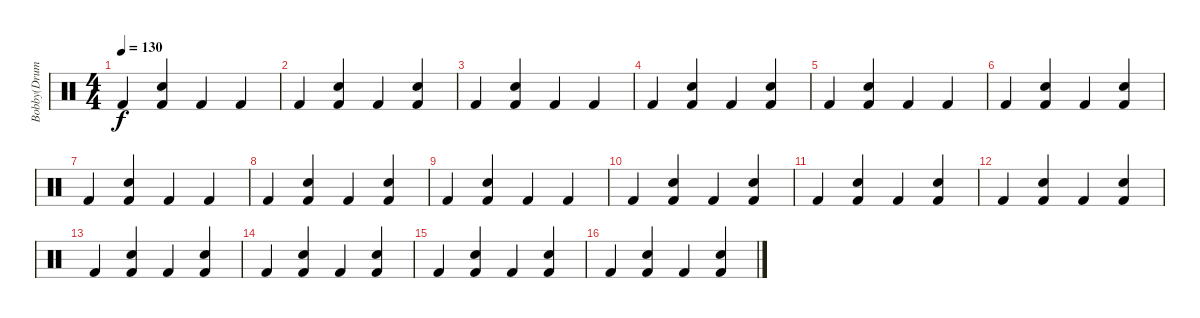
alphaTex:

\track ("Bobby(DrumSynth)" "Bobby(Drum") {instrument percussion}
\staff {score}
\articulation defaults
\ts (4 4)
\tempo 130
\clef neutral
\ks c "Kick (hit) 2".4{dy f}
("Kick (hit) 2" "Electric Snare (hit)").4 "Kick (hit) 2".4 "Kick (hit) 2".4 |
"Kick (hit) 2".4 ("Kick (hit) 2" "Electric Snare (hit)").4 "Kick (hit) 2".4 ("Kick (hit) 2" "Electric Snare (hit)").4 |
"Kick (hit) 2".4 ("Kick (hit) 2" "Electric Snare (hit)").4 "Kick (hit) 2".4 "Kick (hit) 2".4 |
"Kick (hit) 2".4 ("Kick (hit) 2" "Electric Snare (hit)").4 "Kick (hit) 2".4 ("Kick (hit) 2" "Electric Snare (hit)").4 |
"Kick (hit) 2".4 ("Kick (hit) 2" "Electric Snare (hit)").4 "Kick (hit) 2".4 "Kick (hit) 2".4 |
"Kick (hit) 2".4 ("Kick (hit) 2" "Electric Snare (hit)").4 "Kick (hit) 2".4 ("Kick (hit) 2" "Electric Snare (hit)").4 |
"Kick (hit) 2".4 ("Kick (hit) 2" "Electric Snare (hit)").4 "Kick (hit) 2".4 "Kick (hit) 2".4 |
"Kick (hit) 2".4 ("Kick (hit) 2" "Electric Snare (hit)").4 "Kick (hit) 2".4 ("Kick (hit) 2" "Electric Snare (hit)").4 |
"Kick (hit) 2".4 ("Kick (hit) 2" "Electric Snare (hit)").4 "Kick (hit) 2".4 "Kick (hit) 2".4 |
"Kick (hit) 2".4 ("Kick (hit) 2" "Electric Snare (hit)").4 "Kick (hit) 2".4 ("Kick (hit) 2" "Electric Snare (hit)").4 |
"Kick (hit) 2".4 ("Kick (hit) 2" "Electric Snare (hit)").4 "Kick (hit) 2".4 ("Kick (hit) 2" "Electric Snare (hit)").4 |
"Kick (hit) 2".4 ("Kick (hit) 2" "Electric Snare (hit)").4 "Kick (hit) 2".4 ("Kick (hit) 2" "Electric Snare (hit)").4 |
"Kick (hit) 2".4 ("Kick (hit) 2" "Electric Snare (hit)").4 "Kick (hit) 2".4 ("Kick (hit) 2" "Electric Snare (hit)").4 |
"Kick (hit) 2".4 ("Kick (hit) 2" "Electric Snare (hit)").4 "Kick (hit) 2".4 ("Kick (hit) 2" "Electric Snare (hit)").4 |
"Kick (hit) 2".4 ("Kick (hit) 2" "Electric Snare (hit)").4 "Kick (hit) 2".4 ("Kick (hit) 2" "Electric Snare (hit)").4 |
"Kick (hit) 2".4 ("Kick (hit) 2" "Electric Snare (hit)").4 "Kick (hit) 2".4 ("Kick (hit) 2" "Electric Snare (hit)").4
